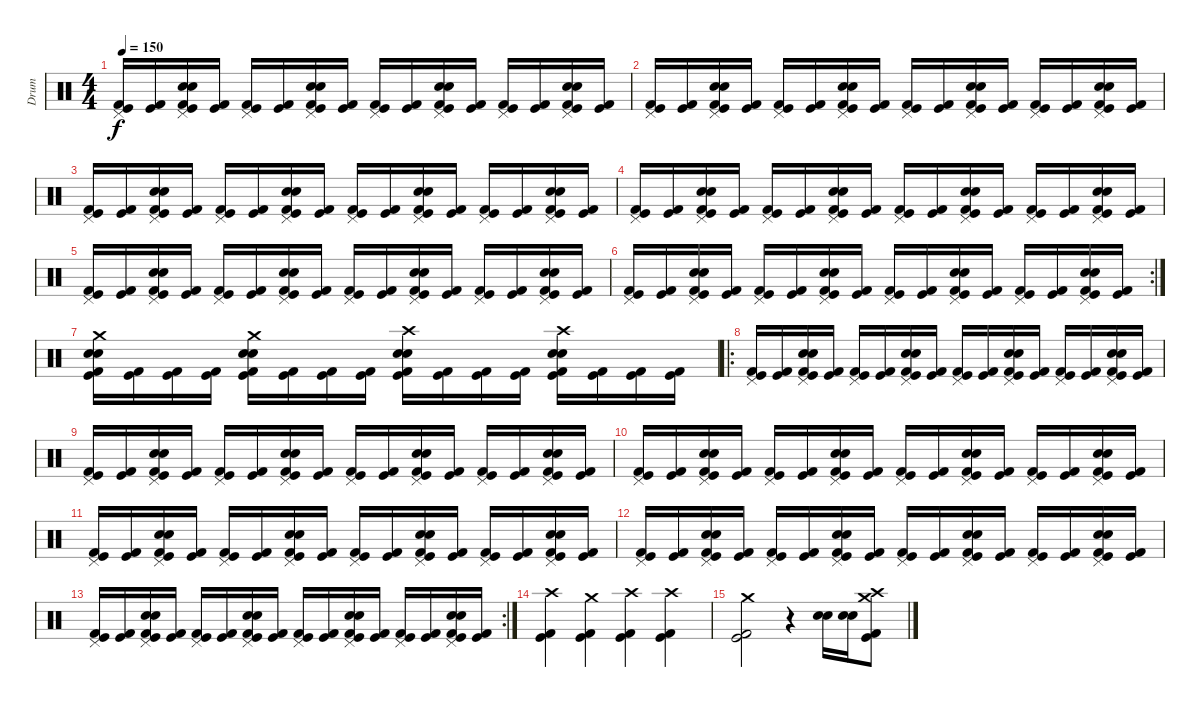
\track ("Drum" "Drum") {instrument percussion}
\staff {score}
\articulation defaults
\ts (4 4)
\tempo 150
\clef neutral
\ks c
("Pedal Hi-Hat (hit)" "Kick (hit) 2" "Kick (hit)").16{dy f} ("Kick (hit) 2" "Kick (hit)").16 ("Pedal Hi-Hat (hit)" "Electric Snare (hit)" "Snare (hit) 2" "Kick (hit) 2" "Kick (hit)").16 ("Kick (hit) 2" "Kick (hit)").16 ("Pedal Hi-Hat (hit)" "Kick (hit) 2" "Kick (hit)").16 ("Kick (hit) 2" "Kick (hit)").16 ("Pedal Hi-Hat (hit)" "Electric Snare (hit)" "Snare (hit) 2" "Kick (hit) 2" "Kick (hit)").16 ("Kick (hit) 2" "Kick (hit)").16 ("Pedal Hi-Hat (hit)" "Kick (hit) 2" "Kick (hit)").16 ("Kick (hit) 2" "Kick (hit)").16 ("Pedal Hi-Hat (hit)" "Electric Snare (hit)" "Snare (hit) 2" "Kick (hit) 2" "Kick (hit)").16 ("Kick (hit) 2" "Kick (hit)").16 ("Pedal Hi-Hat (hit)" "Kick (hit) 2" "Kick (hit)").16 ("Kick (hit) 2" "Kick (hit)").16 ("Pedal Hi-Hat (hit)" "Electric Snare (hit)" "Snare (hit) 2" "Kick (hit) 2" "Kick (hit)").16 ("Kick (hit) 2" "Kick (hit)").16 |
("Pedal Hi-Hat (hit)" "Kick (hit) 2" "Kick (hit)").16 ("Kick (hit) 2" "Kick (hit)").16 ("Pedal Hi-Hat (hit)" "Electric Snare (hit)" "Snare (hit) 2" "Kick (hit) 2" "Kick (hit)").16 ("Kick (hit) 2" "Kick (hit)").16 ("Pedal Hi-Hat (hit)" "Kick (hit) 2" "Kick (hit)").16 ("Kick (hit) 2" "Kick (hit)").16 ("Pedal Hi-Hat (hit)" "Electric Snare (hit)" "Snare (hit) 2" "Kick (hit) 2" "Kick (hit)").16 ("Kick (hit) 2" "Kick (hit)").16 ("Pedal Hi-Hat (hit)" "Kick (hit) 2" "Kick (hit)").16 ("Kick (hit) 2" "Kick (hit)").16 ("Pedal Hi-Hat (hit)" "Electric Snare (hit)" "Snare (hit) 2" "Kick (hit) 2" "Kick (hit)").16 ("Kick (hit) 2" "Kick (hit)").16 ("Pedal Hi-Hat (hit)" "Kick (hit) 2" "Kick (hit)").16 ("Kick (hit) 2" "Kick (hit)").16 ("Pedal Hi-Hat (hit)" "Electric Snare (hit)" "Snare (hit) 2" "Kick (hit) 2" "Kick (hit)").16 ("Kick (hit) 2" "Kick (hit)").16 |
("Pedal Hi-Hat (hit)" "Kick (hit) 2" "Kick (hit)").16 ("Kick (hit) 2" "Kick (hit)").16 ("Pedal Hi-Hat (hit)" "Electric Snare (hit)" "Snare (hit) 2" "Kick (hit) 2" "Kick (hit)").16 ("Kick (hit) 2" "Kick (hit)").16 ("Pedal Hi-Hat (hit)" "Kick (hit) 2" "Kick (hit)").16 ("Kick (hit) 2" "Kick (hit)").16 ("Pedal Hi-Hat (hit)" "Electric Snare (hit)" "Snare (hit) 2" "Kick (hit) 2" "Kick (hit)").16 ("Kick (hit) 2" "Kick (hit)").16 ("Pedal Hi-Hat (hit)" "Kick (hit) 2" "Kick (hit)").16 ("Kick (hit) 2" "Kick (hit)").16 ("Pedal Hi-Hat (hit)" "Electric Snare (hit)" "Snare (hit) 2" "Kick (hit) 2" "Kick (hit)").16 ("Kick (hit) 2" "Kick (hit)").16 ("Pedal Hi-Hat (hit)" "Kick (hit) 2" "Kick (hit)").16 ("Kick (hit) 2" "Kick (hit)").16 ("Pedal Hi-Hat (hit)" "Electric Snare (hit)" "Snare (hit) 2" "Kick (hit) 2" "Kick (hit)").16 ("Kick (hit) 2" "Kick (hit)").16 |
("Pedal Hi-Hat (hit)" "Kick (hit) 2" "Kick (hit)").16 ("Kick (hit) 2" "Kick (hit)").16 ("Pedal Hi-Hat (hit)" "Electric Snare (hit)" "Snare (hit) 2" "Kick (hit) 2" "Kick (hit)").16 ("Kick (hit) 2" "Kick (hit)").16 ("Pedal Hi-Hat (hit)" "Kick (hit) 2" "Kick (hit)").16 ("Kick (hit) 2" "Kick (hit)").16 ("Pedal Hi-Hat (hit)" "Electric Snare (hit)" "Snare (hit) 2" "Kick (hit) 2" "Kick (hit)").16 ("Kick (hit) 2" "Kick (hit)").16 ("Pedal Hi-Hat (hit)" "Kick (hit) 2" "Kick (hit)").16 ("Kick (hit) 2" "Kick (hit)").16 ("Pedal Hi-Hat (hit)" "Electric Snare (hit)" "Snare (hit) 2" "Kick (hit) 2" "Kick (hit)").16 ("Kick (hit) 2" "Kick (hit)").16 ("Pedal Hi-Hat (hit)" "Kick (hit) 2" "Kick (hit)").16 ("Kick (hit) 2" "Kick (hit)").16 ("Pedal Hi-Hat (hit)" "Electric Snare (hit)" "Snare (hit) 2" "Kick (hit) 2" "Kick (hit)").16 ("Kick (hit) 2" "Kick (hit)").16 |
("Pedal Hi-Hat (hit)" "Kick (hit) 2" "Kick (hit)").16 ("Kick (hit) 2" "Kick (hit)").16 ("Pedal Hi-Hat (hit)" "Electric Snare (hit)" "Snare (hit) 2" "Kick (hit) 2" "Kick (hit)").16 ("Kick (hit) 2" "Kick (hit)").16 ("Pedal Hi-Hat (hit)" "Kick (hit) 2" "Kick (hit)").16 ("Kick (hit) 2" "Kick (hit)").16 ("Pedal Hi-Hat (hit)" "Electric Snare (hit)" "Snare (hit) 2" "Kick (hit) 2" "Kick (hit)").16 ("Kick (hit) 2" "Kick (hit)").16 ("Pedal Hi-Hat (hit)" "Kick (hit) 2" "Kick (hit)").16 ("Kick (hit) 2" "Kick (hit)").16 ("Pedal Hi-Hat (hit)" "Electric Snare (hit)" "Snare (hit) 2" "Kick (hit) 2" "Kick (hit)").16 ("Kick (hit) 2" "Kick (hit)").16 ("Pedal Hi-Hat (hit)" "Kick (hit) 2" "Kick (hit)").16 ("Kick (hit) 2" "Kick (hit)").16 ("Pedal Hi-Hat (hit)" "Electric Snare (hit)" "Snare (hit) 2" "Kick (hit) 2" "Kick (hit)").16 ("Kick (hit) 2" "Kick (hit)").16 |
\rc 2
("Pedal Hi-Hat (hit)" "Kick (hit) 2" "Kick (hit)").16 ("Kick (hit) 2" "Kick (hit)").16 ("Pedal Hi-Hat (hit)" "Electric Snare (hit)" "Snare (hit) 2" "Kick (hit) 2" "Kick (hit)").16 ("Kick (hit) 2" "Kick (hit)").16 ("Pedal Hi-Hat (hit)" "Kick (hit) 2" "Kick (hit)").16 ("Kick (hit) 2" "Kick (hit)").16 ("Pedal Hi-Hat (hit)" "Electric Snare (hit)" "Snare (hit) 2" "Kick (hit) 2" "Kick (hit)").16 ("Kick (hit) 2" "Kick (hit)").16 ("Pedal Hi-Hat (hit)" "Kick (hit) 2" "Kick (hit)").16 ("Kick (hit) 2" "Kick (hit)").16 ("Pedal Hi-Hat (hit)" "Electric Snare (hit)" "Snare (hit) 2" "Kick (hit) 2" "Kick (hit)").16 ("Kick (hit) 2" "Kick (hit)").16 ("Pedal Hi-Hat (hit)" "Kick (hit) 2" "Kick (hit)").16 ("Kick (hit) 2" "Kick (hit)").16 ("Pedal Hi-Hat (hit)" "Electric Snare (hit)" "Snare (hit) 2" "Kick (hit) 2" "Kick (hit)").16 ("Kick (hit) 2" "Kick (hit)").16 |
("Crash medium (hit)" "Electric Snare (hit)" "Snare (hit) 2" "Kick (hit) 2" "Kick (hit)").16 ("Kick (hit) 2" "Kick (hit)").16 ("Kick (hit) 2" "Kick (hit)").16 ("Kick (hit) 2" "Kick (hit)").16 ("Crash medium (hit)" "Electric Snare (hit)" "Snare (hit) 2" "Kick (hit) 2" "Kick (hit)").16 ("Kick (hit) 2" "Kick (hit)").16 ("Kick (hit) 2" "Kick (hit)").16 ("Kick (hit) 2" "Kick (hit)").16 ("Crash high (hit)" "Electric Snare (hit)" "Snare (hit) 2" "Kick (hit) 2" "Kick (hit)").16 ("Kick (hit) 2" "Kick (hit)").16 ("Kick (hit) 2" "Kick (hit)").16 ("Kick (hit) 2" "Kick (hit)").16 ("Crash high (hit)" "Snare (hit) 2" "Electric Snare (hit)" "Kick (hit) 2" "Kick (hit)").16 ("Kick (hit) 2" "Kick (hit)").16 ("Kick (hit) 2" "Kick (hit)").16 ("Kick (hit) 2" "Kick (hit)").16 |
\ro
("Pedal Hi-Hat (hit)" "Kick (hit) 2" "Kick (hit)").16 ("Kick (hit) 2" "Kick (hit)").16 ("Pedal Hi-Hat (hit)" "Electric Snare (hit)" "Snare (hit) 2" "Kick (hit) 2" "Kick (hit)").16 ("Kick (hit) 2" "Kick (hit)").16 ("Pedal Hi-Hat (hit)" "Kick (hit) 2" "Kick (hit)").16 ("Kick (hit) 2" "Kick (hit)").16 ("Pedal Hi-Hat (hit)" "Electric Snare (hit)" "Snare (hit) 2" "Kick (hit) 2" "Kick (hit)").16 ("Kick (hit) 2" "Kick (hit)").16 ("Pedal Hi-Hat (hit)" "Kick (hit) 2" "Kick (hit)").16 ("Kick (hit) 2" "Kick (hit)").16 ("Pedal Hi-Hat (hit)" "Electric Snare (hit)" "Snare (hit) 2" "Kick (hit) 2" "Kick (hit)").16 ("Kick (hit) 2" "Kick (hit)").16 ("Pedal Hi-Hat (hit)" "Kick (hit) 2" "Kick (hit)").16 ("Kick (hit) 2" "Kick (hit)").16 ("Pedal Hi-Hat (hit)" "Electric Snare (hit)" "Snare (hit) 2" "Kick (hit) 2" "Kick (hit)").16 ("Kick (hit) 2" "Kick (hit)").16 |
("Pedal Hi-Hat (hit)" "Kick (hit) 2" "Kick (hit)").16 ("Kick (hit) 2" "Kick (hit)").16 ("Pedal Hi-Hat (hit)" "Electric Snare (hit)" "Snare (hit) 2" "Kick (hit) 2" "Kick (hit)").16 ("Kick (hit) 2" "Kick (hit)").16 ("Pedal Hi-Hat (hit)" "Kick (hit) 2" "Kick (hit)").16 ("Kick (hit) 2" "Kick (hit)").16 ("Pedal Hi-Hat (hit)" "Electric Snare (hit)" "Snare (hit) 2" "Kick (hit) 2" "Kick (hit)").16 ("Kick (hit) 2" "Kick (hit)").16 ("Pedal Hi-Hat (hit)" "Kick (hit) 2" "Kick (hit)").16 ("Kick (hit) 2" "Kick (hit)").16 ("Pedal Hi-Hat (hit)" "Electric Snare (hit)" "Snare (hit) 2" "Kick (hit) 2" "Kick (hit)").16 ("Kick (hit) 2" "Kick (hit)").16 ("Pedal Hi-Hat (hit)" "Kick (hit) 2" "Kick (hit)").16 ("Kick (hit) 2" "Kick (hit)").16 ("Pedal Hi-Hat (hit)" "Electric Snare (hit)" "Snare (hit) 2" "Kick (hit) 2" "Kick (hit)").16 ("Kick (hit) 2" "Kick (hit)").16 |
("Pedal Hi-Hat (hit)" "Kick (hit) 2" "Kick (hit)").16 ("Kick (hit) 2" "Kick (hit)").16 ("Pedal Hi-Hat (hit)" "Electric Snare (hit)" "Snare (hit) 2" "Kick (hit) 2" "Kick (hit)").16 ("Kick (hit) 2" "Kick (hit)").16 ("Pedal Hi-Hat (hit)" "Kick (hit) 2" "Kick (hit)").16 ("Kick (hit) 2" "Kick (hit)").16 ("Pedal Hi-Hat (hit)" "Electric Snare (hit)" "Snare (hit) 2" "Kick (hit) 2" "Kick (hit)").16 ("Kick (hit) 2" "Kick (hit)").16 ("Pedal Hi-Hat (hit)" "Kick (hit) 2" "Kick (hit)").16 ("Kick (hit) 2" "Kick (hit)").16 ("Pedal Hi-Hat (hit)" "Electric Snare (hit)" "Snare (hit) 2" "Kick (hit) 2" "Kick (hit)").16 ("Kick (hit) 2" "Kick (hit)").16 ("Pedal Hi-Hat (hit)" "Kick (hit) 2" "Kick (hit)").16 ("Kick (hit) 2" "Kick (hit)").16 ("Pedal Hi-Hat (hit)" "Electric Snare (hit)" "Snare (hit) 2" "Kick (hit) 2" "Kick (hit)").16 ("Kick (hit) 2" "Kick (hit)").16 |
("Pedal Hi-Hat (hit)" "Kick (hit) 2" "Kick (hit)").16 ("Kick (hit) 2" "Kick (hit)").16 ("Pedal Hi-Hat (hit)" "Electric Snare (hit)" "Snare (hit) 2" "Kick (hit) 2" "Kick (hit)").16 ("Kick (hit) 2" "Kick (hit)").16 ("Pedal Hi-Hat (hit)" "Kick (hit) 2" "Kick (hit)").16 ("Kick (hit) 2" "Kick (hit)").16 ("Pedal Hi-Hat (hit)" "Electric Snare (hit)" "Snare (hit) 2" "Kick (hit) 2" "Kick (hit)").16 ("Kick (hit) 2" "Kick (hit)").16 ("Pedal Hi-Hat (hit)" "Kick (hit) 2" "Kick (hit)").16 ("Kick (hit) 2" "Kick (hit)").16 ("Pedal Hi-Hat (hit)" "Electric Snare (hit)" "Snare (hit) 2" "Kick (hit) 2" "Kick (hit)").16 ("Kick (hit) 2" "Kick (hit)").16 ("Pedal Hi-Hat (hit)" "Kick (hit) 2" "Kick (hit)").16 ("Kick (hit) 2" "Kick (hit)").16 ("Pedal Hi-Hat (hit)" "Electric Snare (hit)" "Snare (hit) 2" "Kick (hit) 2" "Kick (hit)").16 ("Kick (hit) 2" "Kick (hit)").16 |
("Pedal Hi-Hat (hit)" "Kick (hit) 2" "Kick (hit)").16 ("Kick (hit) 2" "Kick (hit)").16 ("Pedal Hi-Hat (hit)" "Electric Snare (hit)" "Snare (hit) 2" "Kick (hit) 2" "Kick (hit)").16 ("Kick (hit) 2" "Kick (hit)").16 ("Pedal Hi-Hat (hit)" "Kick (hit) 2" "Kick (hit)").16 ("Kick (hit) 2" "Kick (hit)").16 ("Pedal Hi-Hat (hit)" "Electric Snare (hit)" "Snare (hit) 2" "Kick (hit) 2" "Kick (hit)").16 ("Kick (hit) 2" "Kick (hit)").16 ("Pedal Hi-Hat (hit)" "Kick (hit) 2" "Kick (hit)").16 ("Kick (hit) 2" "Kick (hit)").16 ("Pedal Hi-Hat (hit)" "Electric Snare (hit)" "Snare (hit) 2" "Kick (hit) 2" "Kick (hit)").16 ("Kick (hit) 2" "Kick (hit)").16 ("Pedal Hi-Hat (hit)" "Kick (hit) 2" "Kick (hit)").16 ("Kick (hit) 2" "Kick (hit)").16 ("Pedal Hi-Hat (hit)" "Electric Snare (hit)" "Snare (hit) 2" "Kick (hit) 2" "Kick (hit)").16 ("Kick (hit) 2" "Kick (hit)").16 |
\rc 2
("Pedal Hi-Hat (hit)" "Kick (hit) 2" "Kick (hit)").16 ("Kick (hit) 2" "Kick (hit)").16 ("Pedal Hi-Hat (hit)" "Electric Snare (hit)" "Snare (hit) 2" "Kick (hit) 2" "Kick (hit)").16 ("Kick (hit) 2" "Kick (hit)").16 ("Pedal Hi-Hat (hit)" "Kick (hit) 2" "Kick (hit)").16 ("Kick (hit) 2" "Kick (hit)").16 ("Pedal Hi-Hat (hit)" "Electric Snare (hit)" "Snare (hit) 2" "Kick (hit) 2" "Kick (hit)").16 ("Kick (hit) 2" "Kick (hit)").16 ("Pedal Hi-Hat (hit)" "Kick (hit) 2" "Kick (hit)").16 ("Kick (hit) 2" "Kick (hit)").16 ("Pedal Hi-Hat (hit)" "Electric Snare (hit)" "Snare (hit) 2" "Kick (hit) 2" "Kick (hit)").16 ("Kick (hit) 2" "Kick (hit)").16 ("Pedal Hi-Hat (hit)" "Kick (hit) 2" "Kick (hit)").16 ("Kick (hit) 2" "Kick (hit)").16 ("Pedal Hi-Hat (hit)" "Electric Snare (hit)" "Snare (hit) 2" "Kick (hit) 2" "Kick (hit)").16 ("Kick (hit) 2" "Kick (hit)").16 |
("Crash high (hit)" "Kick (hit) 2" "Kick (hit)").4 ("Crash medium (hit)" "Kick (hit)" "Kick (hit) 2").4 ("Crash high (hit)" "Kick (hit) 2" "Kick (hit)").4 ("Crash high (hit)" "Kick (hit) 2" "Kick (hit)").4 |
("Crash medium (hit)" "Kick (hit) 2" "Kick (hit)").2 r.4 ("Snare (hit) 2" "Electric Snare (hit)").16 ("Snare (hit) 2" "Electric Snare (hit)").16 ("Crash high (hit)" "Crash medium (hit)" "Kick (hit) 2" "Kick (hit)").8
